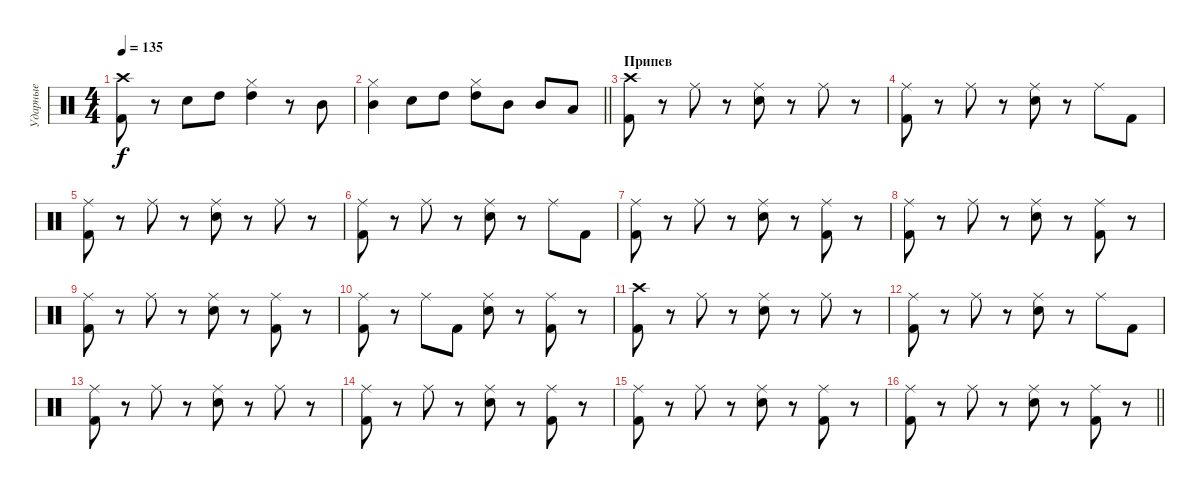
\track ("Ударные" "Ударные") {instrument percussion}
\staff {score}
\articulation defaults
\ts (4 4)
\tempo 135
\clef neutral
\ks c
("Kick (hit) 2" "Crash high (hit)").8{dy f} r.8 "Electric Snare (hit)".8 "High Tom (hit)".8 ("High Tom (hit)" "Hi-Hat (closed)").4 r.8 "Mid Tom (hit)".8 |
\barLineRight lightlight
("Mid Tom (hit)" "Hi-Hat (closed)").4 "Electric Snare (hit)".8 "High Tom (hit)".8 ("High Tom (hit)" "Hi-Hat (closed)").8 "Mid Tom (hit)".8 "Mid Tom (hit)".8 "Low Tom (hit)".8 |
\section ("" "Припев")
("Kick (hit) 2" "Crash high (hit)").8 r.8 "Ride (middle)".8 r.8 ("Ride (middle)" "Electric Snare (hit)").8 r.8 "Ride (middle)".8 r.8 |
("Ride (middle)" "Kick (hit) 2").8 r.8 "Ride (middle)".8 r.8 ("Ride (middle)" "Electric Snare (hit)").8 r.8 "Ride (middle)".8 "Kick (hit) 2".8 |
("Ride (middle)" "Kick (hit) 2").8 r.8 "Ride (middle)".8 r.8 ("Ride (middle)" "Electric Snare (hit)").8 r.8 "Ride (middle)".8 r.8 |
("Ride (middle)" "Kick (hit) 2").8 r.8 "Ride (middle)".8 r.8 ("Ride (middle)" "Electric Snare (hit)").8 r.8 "Ride (middle)".8 "Kick (hit) 2".8 |
("Ride (middle)" "Kick (hit) 2").8 r.8 "Ride (middle)".8 r.8 ("Ride (middle)" "Electric Snare (hit)").8 r.8 ("Ride (middle)" "Kick (hit) 2").8 r.8 |
("Ride (middle)" "Kick (hit) 2").8 r.8 "Ride (middle)".8 r.8 ("Ride (middle)" "Electric Snare (hit)").8 r.8 ("Ride (middle)" "Kick (hit) 2").8 r.8 |
("Ride (middle)" "Kick (hit) 2").8 r.8 "Ride (middle)".8 r.8 ("Ride (middle)" "Electric Snare (hit)").8 r.8 ("Ride (middle)" "Kick (hit) 2").8 r.8 |
("Ride (middle)" "Kick (hit) 2").8 r.8 "Ride (middle)".8 "Kick (hit) 2".8 ("Ride (middle)" "Electric Snare (hit)").8 r.8 ("Ride (middle)" "Kick (hit) 2").8 r.8 |
("Kick (hit) 2" "Crash high (hit)").8 r.8 "Ride (middle)".8 r.8 ("Ride (middle)" "Electric Snare (hit)").8 r.8 "Ride (middle)".8 r.8 |
("Ride (middle)" "Kick (hit) 2").8 r.8 "Ride (middle)".8 r.8 ("Ride (middle)" "Electric Snare (hit)").8 r.8 "Ride (middle)".8 "Kick (hit) 2".8 |
("Ride (middle)" "Kick (hit) 2").8 r.8 "Ride (middle)".8 r.8 ("Ride (middle)" "Electric Snare (hit)").8 r.8 "Ride (middle)".8 r.8 |
("Ride (middle)" "Kick (hit) 2").8 r.8 "Ride (middle)".8 r.8 ("Ride (middle)" "Electric Snare (hit)").8 r.8 ("Ride (middle)" "Kick (hit) 2").8 r.8 |
("Ride (middle)" "Kick (hit) 2").8 r.8 "Ride (middle)".8 r.8 ("Ride (middle)" "Electric Snare (hit)").8 r.8 ("Ride (middle)" "Kick (hit) 2").8 r.8 |
\barLineRight lightlight
("Ride (middle)" "Kick (hit) 2").8 r.8 "Ride (middle)".8 r.8 ("Ride (middle)" "Electric Snare (hit)").8 r.8 ("Ride (middle)" "Kick (hit) 2").8 r.8
